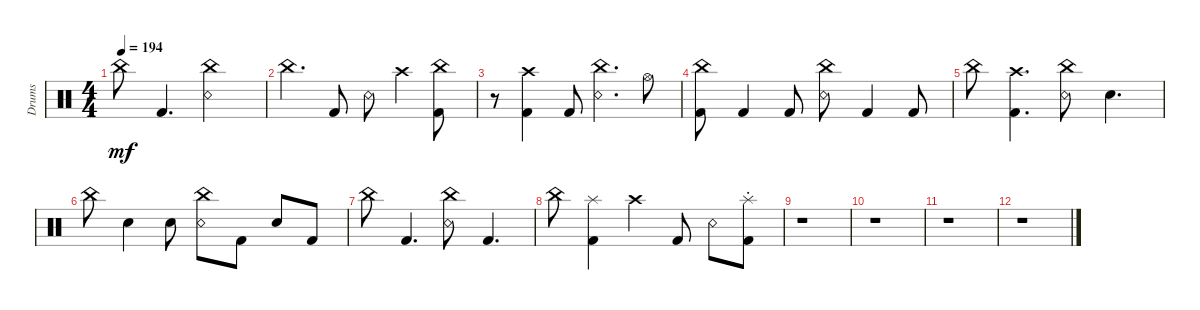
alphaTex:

\track ("Drums" "Drums") {instrument percussion}
\staff {score}
\articulation defaults
\ts (4 4)
\tempo 194
\clef neutral
\ks c "China (hit)".8{dy mf} "Kick (hit) 2".4{d}
("China (hit)" "Snare (rim shot)").2 |
"China (hit)".4{d} "Kick (hit) 2".8 "Snare (rim shot)".8 "Crash high (hit)".4 ("China (hit)" "Kick (hit) 2").8 |
r.8 ("Crash high (hit)" "Kick (hit) 2").4 "Kick (hit) 2".8 ("China (hit)" "Snare (rim shot)").4{d} "Hi-Hat (open)".8 |
("China (hit)" "Kick (hit) 2").8 "Kick (hit) 2".4 "Kick (hit) 2".8 ("China (hit)" "Snare (rim shot)").8 "Kick (hit) 2".4 "Kick (hit) 2".8 |
"China (hit)".8 ("Crash high (hit)" "Kick (hit) 2").4{d} ("China (hit)" "Snare (rim shot)").8 "Snare (hit) 2".4{d} |
"China (hit)".8 "Snare (hit) 2".4 "Snare (hit) 2".8 ("China (hit)" "Snare (rim shot)").8 "Kick (hit) 2".8 "Snare (hit) 2".8 "Kick (hit) 2".8 |
"China (hit)".8 "Kick (hit) 2".4{d} ("China (hit)" "Snare (rim shot)").8 "Kick (hit) 2".4{d} |
"China (hit)".8 ("Splash (hit)" "Kick (hit) 2").4 "Crash high (hit)".4 "Kick (hit) 2".8 "Snare (rim shot)".8 ("Splash (hit)"{st} "Kick (hit) 2").8 |
r.1 |
r.1 |
r.1 |
r.1
